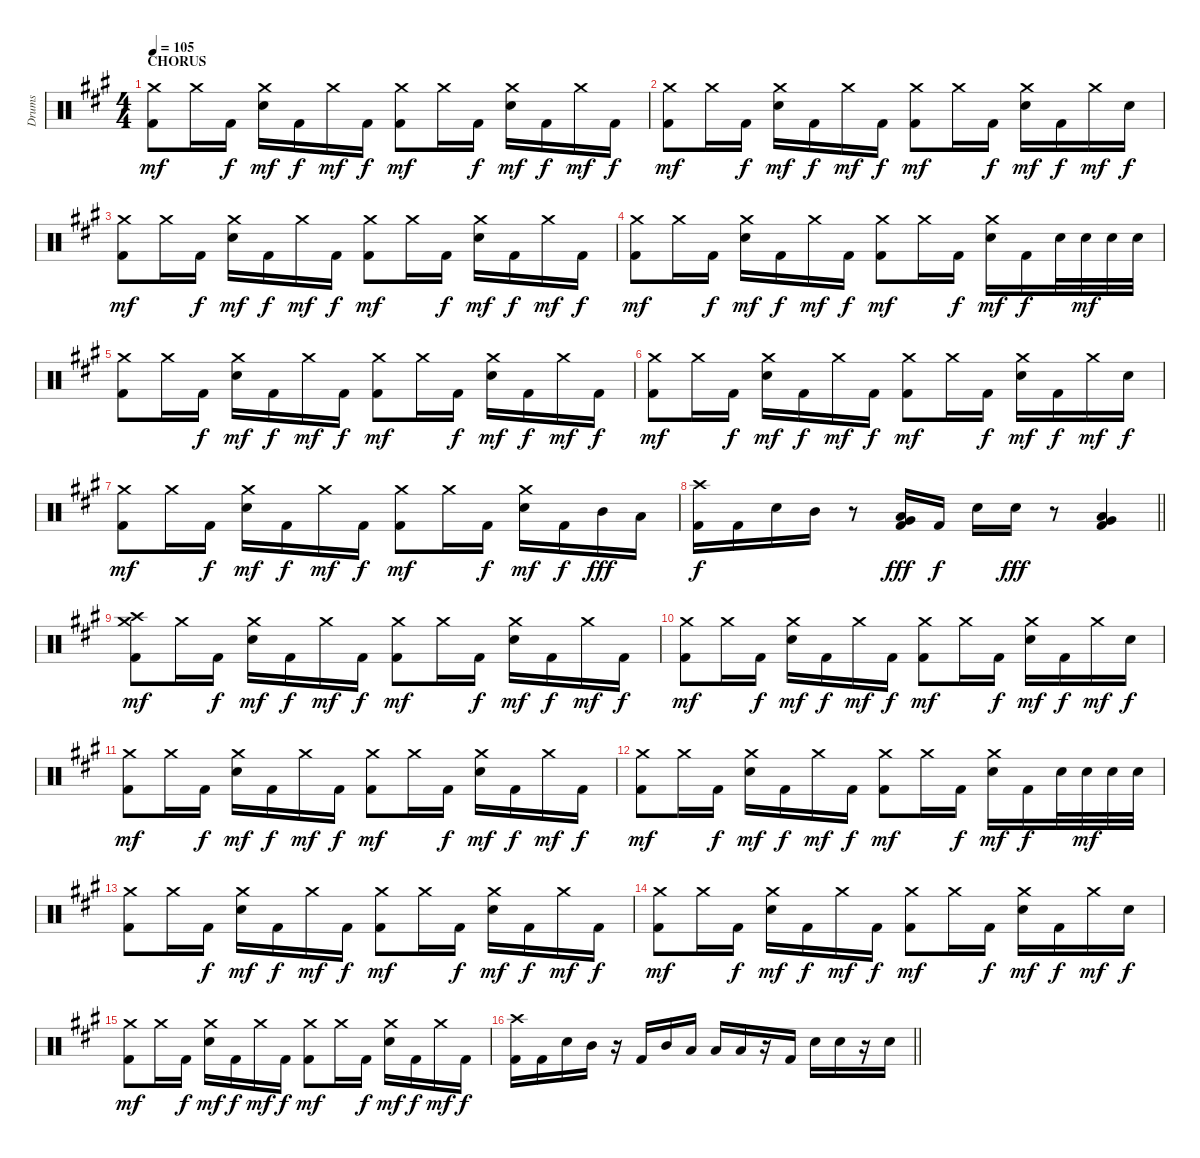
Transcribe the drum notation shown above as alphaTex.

\track ("Drums" "Drums") {instrument percussion}
\staff {score}
\articulation defaults
\ts (4 4)
\section ("" "CHORUS")
\tempo 105
\clef neutral
\ks f#minor
("Crash medium (hit)" "Kick (hit) 2").8{dy mf} "Crash medium (hit)".16 "Kick (hit) 2".16{dy f} ("Electric Snare (hit)" "Crash medium (hit)").16{dy mf} "Kick (hit) 2".16{dy f} "Crash medium (hit)".16{dy mf} "Kick (hit) 2".16{dy f} ("Crash medium (hit)" "Kick (hit) 2").8{dy mf} "Crash medium (hit)".16 "Kick (hit) 2".16{dy f} ("Electric Snare (hit)" "Crash medium (hit)").16{dy mf} "Kick (hit) 2".16{dy f} "Crash medium (hit)".16{dy mf} "Kick (hit) 2".16{dy f} |
("Crash medium (hit)" "Kick (hit) 2").8{dy mf} "Crash medium (hit)".16 "Kick (hit) 2".16{dy f} ("Electric Snare (hit)" "Crash medium (hit)").16{dy mf} "Kick (hit) 2".16{dy f} "Crash medium (hit)".16{dy mf} "Kick (hit) 2".16{dy f} ("Crash medium (hit)" "Kick (hit) 2").8{dy mf} "Crash medium (hit)".16 "Kick (hit) 2".16{dy f} ("Electric Snare (hit)" "Crash medium (hit)").16{dy mf} "Kick (hit) 2".16{dy f} "Crash medium (hit)".16{dy mf} "Electric Snare (hit)".16{dy f} |
("Crash medium (hit)" "Kick (hit) 2").8{dy mf} "Crash medium (hit)".16 "Kick (hit) 2".16{dy f} ("Electric Snare (hit)" "Crash medium (hit)").16{dy mf} "Kick (hit) 2".16{dy f} "Crash medium (hit)".16{dy mf} "Kick (hit) 2".16{dy f} ("Crash medium (hit)" "Kick (hit) 2").8{dy mf} "Crash medium (hit)".16 "Kick (hit) 2".16{dy f} ("Electric Snare (hit)" "Crash medium (hit)").16{dy mf} "Kick (hit) 2".16{dy f} "Crash medium (hit)".16{dy mf} "Kick (hit) 2".16{dy f} |
("Crash medium (hit)" "Kick (hit) 2").8{dy mf} "Crash medium (hit)".16 "Kick (hit) 2".16{dy f} ("Electric Snare (hit)" "Crash medium (hit)").16{dy mf} "Kick (hit) 2".16{dy f} "Crash medium (hit)".16{dy mf} "Kick (hit) 2".16{dy f} ("Crash medium (hit)" "Kick (hit) 2").8{dy mf} "Crash medium (hit)".16 "Kick (hit) 2".16{dy f} ("Electric Snare (hit)" "Crash medium (hit)").16{dy mf} "Kick (hit) 2".16{dy f} "Electric Snare (hit)".32 "Electric Snare (hit)".32{dy mf} "Electric Snare (hit)".32 "Electric Snare (hit)".32 |
("Crash medium (hit)" "Kick (hit) 2").8 "Crash medium (hit)".16 "Kick (hit) 2".16{dy f} ("Electric Snare (hit)" "Crash medium (hit)").16{dy mf} "Kick (hit) 2".16{dy f} "Crash medium (hit)".16{dy mf} "Kick (hit) 2".16{dy f} ("Crash medium (hit)" "Kick (hit) 2").8{dy mf} "Crash medium (hit)".16 "Kick (hit) 2".16{dy f} ("Electric Snare (hit)" "Crash medium (hit)").16{dy mf} "Kick (hit) 2".16{dy f} "Crash medium (hit)".16{dy mf} "Kick (hit) 2".16{dy f} |
("Crash medium (hit)" "Kick (hit) 2").8{dy mf} "Crash medium (hit)".16 "Kick (hit) 2".16{dy f} ("Electric Snare (hit)" "Crash medium (hit)").16{dy mf} "Kick (hit) 2".16{dy f} "Crash medium (hit)".16{dy mf} "Kick (hit) 2".16{dy f} ("Crash medium (hit)" "Kick (hit) 2").8{dy mf} "Crash medium (hit)".16 "Kick (hit) 2".16{dy f} ("Electric Snare (hit)" "Crash medium (hit)").16{dy mf} "Kick (hit) 2".16{dy f} "Crash medium (hit)".16{dy mf} "Electric Snare (hit)".16{dy f} |
("Crash medium (hit)" "Kick (hit) 2").8{dy mf} "Crash medium (hit)".16 "Kick (hit) 2".16{dy f} ("Electric Snare (hit)" "Crash medium (hit)").16{dy mf} "Kick (hit) 2".16{dy f} "Crash medium (hit)".16{dy mf} "Kick (hit) 2".16{dy f} ("Crash medium (hit)" "Kick (hit) 2").8{dy mf} "Crash medium (hit)".16 "Kick (hit) 2".16{dy f} ("Electric Snare (hit)" "Crash medium (hit)").16{dy mf} "Kick (hit) 2".16{dy f} "Mid Tom (hit)".16{dy fff} "Low Tom (hit)".16 |
\barLineRight lightlight
("Crash high (hit)" "Kick (hit) 2").16{dy f} "Kick (hit) 2".16 "Electric Snare (hit)".16 "Mid Tom (hit)".16 r.8 ("Low Floor Tom (hit)" "Very Low Tom (hit)" "Kick (hit) 2").16{dy fff} "Kick (hit) 2".16{dy f} "Electric Snare (hit)".16 "Electric Snare (hit)".16{dy fff} r.8 ("Low Floor Tom (hit)" "Very Low Tom (hit)" "Kick (hit) 2").4 |
("Crash high (hit)" "Crash medium (hit)" "Kick (hit) 2").8{dy mf} "Crash medium (hit)".16 "Kick (hit) 2".16{dy f} ("Electric Snare (hit)" "Crash medium (hit)").16{dy mf} "Kick (hit) 2".16{dy f} "Crash medium (hit)".16{dy mf} "Kick (hit) 2".16{dy f} ("Crash medium (hit)" "Kick (hit) 2").8{dy mf} "Crash medium (hit)".16 "Kick (hit) 2".16{dy f} ("Electric Snare (hit)" "Crash medium (hit)").16{dy mf} "Kick (hit) 2".16{dy f} "Crash medium (hit)".16{dy mf} "Kick (hit) 2".16{dy f} |
("Crash medium (hit)" "Kick (hit) 2").8{dy mf} "Crash medium (hit)".16 "Kick (hit) 2".16{dy f} ("Electric Snare (hit)" "Crash medium (hit)").16{dy mf} "Kick (hit) 2".16{dy f} "Crash medium (hit)".16{dy mf} "Kick (hit) 2".16{dy f} ("Crash medium (hit)" "Kick (hit) 2").8{dy mf} "Crash medium (hit)".16 "Kick (hit) 2".16{dy f} ("Electric Snare (hit)" "Crash medium (hit)").16{dy mf} "Kick (hit) 2".16{dy f} "Crash medium (hit)".16{dy mf} "Electric Snare (hit)".16{dy f} |
("Crash medium (hit)" "Kick (hit) 2").8{dy mf} "Crash medium (hit)".16 "Kick (hit) 2".16{dy f} ("Electric Snare (hit)" "Crash medium (hit)").16{dy mf} "Kick (hit) 2".16{dy f} "Crash medium (hit)".16{dy mf} "Kick (hit) 2".16{dy f} ("Crash medium (hit)" "Kick (hit) 2").8{dy mf} "Crash medium (hit)".16 "Kick (hit) 2".16{dy f} ("Electric Snare (hit)" "Crash medium (hit)").16{dy mf} "Kick (hit) 2".16{dy f} "Crash medium (hit)".16{dy mf} "Kick (hit) 2".16{dy f} |
("Crash medium (hit)" "Kick (hit) 2").8{dy mf} "Crash medium (hit)".16 "Kick (hit) 2".16{dy f} ("Electric Snare (hit)" "Crash medium (hit)").16{dy mf} "Kick (hit) 2".16{dy f} "Crash medium (hit)".16{dy mf} "Kick (hit) 2".16{dy f} ("Crash medium (hit)" "Kick (hit) 2").8{dy mf} "Crash medium (hit)".16 "Kick (hit) 2".16{dy f} ("Electric Snare (hit)" "Crash medium (hit)").16{dy mf} "Kick (hit) 2".16{dy f} "Electric Snare (hit)".32 "Electric Snare (hit)".32{dy mf} "Electric Snare (hit)".32 "Electric Snare (hit)".32 |
("Crash medium (hit)" "Kick (hit) 2").8 "Crash medium (hit)".16 "Kick (hit) 2".16{dy f} ("Electric Snare (hit)" "Crash medium (hit)").16{dy mf} "Kick (hit) 2".16{dy f} "Crash medium (hit)".16{dy mf} "Kick (hit) 2".16{dy f} ("Crash medium (hit)" "Kick (hit) 2").8{dy mf} "Crash medium (hit)".16 "Kick (hit) 2".16{dy f} ("Electric Snare (hit)" "Crash medium (hit)").16{dy mf} "Kick (hit) 2".16{dy f} "Crash medium (hit)".16{dy mf} "Kick (hit) 2".16{dy f} |
("Crash medium (hit)" "Kick (hit) 2").8{dy mf} "Crash medium (hit)".16 "Kick (hit) 2".16{dy f} ("Electric Snare (hit)" "Crash medium (hit)").16{dy mf} "Kick (hit) 2".16{dy f} "Crash medium (hit)".16{dy mf} "Kick (hit) 2".16{dy f} ("Crash medium (hit)" "Kick (hit) 2").8{dy mf} "Crash medium (hit)".16 "Kick (hit) 2".16{dy f} ("Electric Snare (hit)" "Crash medium (hit)").16{dy mf} "Kick (hit) 2".16{dy f} "Crash medium (hit)".16{dy mf} "Electric Snare (hit)".16{dy f} |
("Crash medium (hit)" "Kick (hit) 2").8{dy mf} "Crash medium (hit)".16 "Kick (hit) 2".16{dy f} ("Electric Snare (hit)" "Crash medium (hit)").16{dy mf} "Kick (hit) 2".16{dy f} "Crash medium (hit)".16{dy mf} "Kick (hit) 2".16{dy f} ("Crash medium (hit)" "Kick (hit) 2").8{dy mf} "Crash medium (hit)".16 "Kick (hit) 2".16{dy f} ("Electric Snare (hit)" "Crash medium (hit)").16{dy mf} "Kick (hit) 2".16{dy f} "Crash medium (hit)".16{dy mf} "Kick (hit) 2".16{dy f} |
\barLineRight lightlight
("Crash high (hit)" "Kick (hit) 2").16 "Kick (hit) 2".16 "Electric Snare (hit)".16 "Mid Tom (hit)".16 r.16 "Kick (hit) 2".16 "Mid Tom (hit)".16 "Low Tom (hit)".16 "Low Tom (hit)".16 "Low Tom (hit)".16 r.16 "Kick (hit) 2".16 "Electric Snare (hit)".16 "Electric Snare (hit)".16 r.16 "Electric Snare (hit)".16
